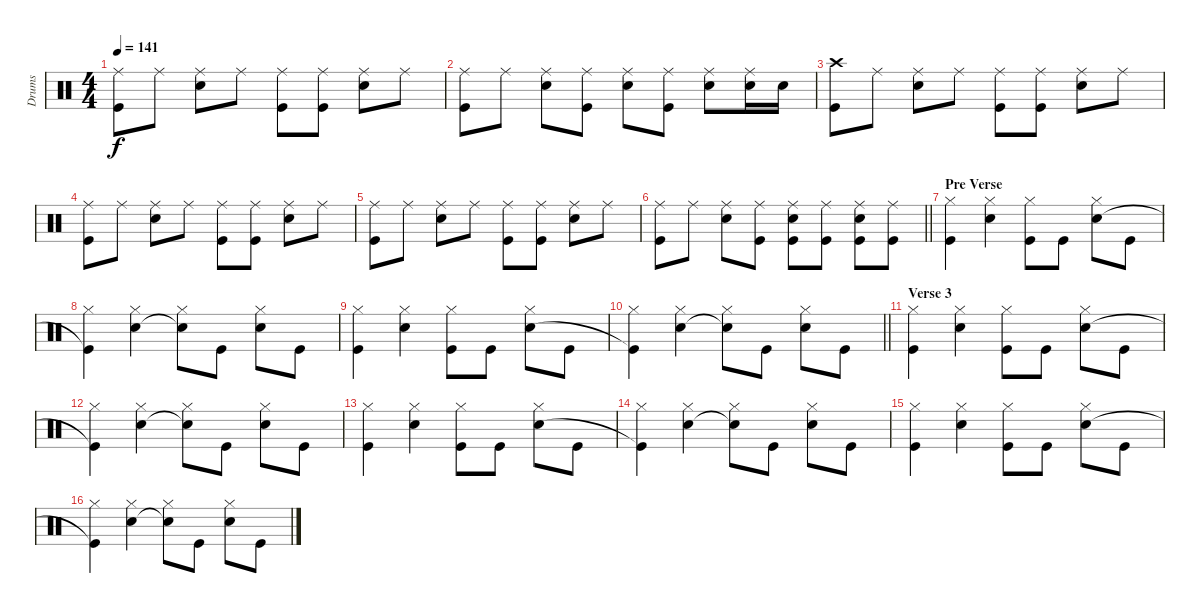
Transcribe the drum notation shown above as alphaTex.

\track ("Drums" "Drums") {instrument percussion}
\staff {score}
\articulation defaults
\ts (4 4)
\tempo 141
\clef neutral
\ks c
("Ride (middle)" "Kick (hit)").8{dy f} "Ride (middle)".8 ("Ride (middle)" "Snare (hit) 2").8 "Ride (middle)".8 ("Ride (middle)" "Kick (hit)").8 ("Ride (middle)" "Kick (hit)").8 ("Ride (middle)" "Snare (hit) 2").8 "Ride (middle)".8 |
("Ride (middle)" "Kick (hit)").8 "Ride (middle)".8 ("Ride (middle)" "Snare (hit) 2").8 ("Ride (middle)" "Kick (hit)").8 ("Ride (middle)" "Snare (hit) 2").8 ("Ride (middle)" "Kick (hit)").8 ("Ride (middle)" "Snare (hit) 2").8 ("Ride (middle)" "Snare (hit) 2").16 "Snare (hit) 2".16 |
("Crash high (hit)" "Kick (hit)").8 "Ride (middle)".8 ("Ride (middle)" "Snare (hit) 2").8 "Ride (middle)".8 ("Ride (middle)" "Kick (hit)").8 ("Ride (middle)" "Kick (hit)").8 ("Ride (middle)" "Snare (hit) 2").8 "Ride (middle)".8 |
("Ride (middle)" "Kick (hit)").8 "Ride (middle)".8 ("Ride (middle)" "Snare (hit) 2").8 "Ride (middle)".8 ("Ride (middle)" "Kick (hit)").8 ("Ride (middle)" "Kick (hit)").8 ("Ride (middle)" "Snare (hit) 2").8 "Ride (middle)".8 |
("Ride (middle)" "Kick (hit)").8 "Ride (middle)".8 ("Ride (middle)" "Snare (hit) 2").8 "Ride (middle)".8 ("Ride (middle)" "Kick (hit)").8 ("Ride (middle)" "Kick (hit)").8 ("Ride (middle)" "Snare (hit) 2").8 "Ride (middle)".8 |
\barLineRight lightlight
("Ride (middle)" "Kick (hit)").8 "Ride (middle)".8 ("Ride (middle)" "Snare (hit) 2").8 ("Ride (middle)" "Kick (hit)").8 ("Ride (middle)" "Snare (hit) 2" "Kick (hit)").8 ("Ride (middle)" "Kick (hit)").8 ("Ride (middle)" "Snare (hit) 2" "Kick (hit)").8 ("Ride (middle)" "Kick (hit)").8 |
\section ("" "Pre Verse")
("Kick (hit)" "Hi-Hat (closed)").4 ("Snare (hit) 2" "Hi-Hat (closed)").4 ("Hi-Hat (closed)" "Kick (hit)").8 "Kick (hit)".8 ("Hi-Hat (closed)" "Snare (hit) 2").8 "Kick (hit)".8 |
("Hi-Hat (closed)" "Kick (hit)"{t}).4 ("Hi-Hat (closed)" "Snare (hit) 2").4 ("Hi-Hat (closed)" "Snare (hit) 2"{t}).8 "Kick (hit)".8 ("Hi-Hat (closed)" "Snare (hit) 2").8 "Kick (hit)".8 |
("Kick (hit)" "Hi-Hat (closed)").4 ("Snare (hit) 2" "Hi-Hat (closed)").4 ("Hi-Hat (closed)" "Kick (hit)").8 "Kick (hit)".8 ("Hi-Hat (closed)" "Snare (hit) 2").8 "Kick (hit)".8 |
\barLineRight lightlight
("Hi-Hat (closed)" "Kick (hit)"{t}).4 ("Hi-Hat (closed)" "Snare (hit) 2").4 ("Hi-Hat (closed)" "Snare (hit) 2"{t}).8 "Kick (hit)".8 ("Hi-Hat (closed)" "Snare (hit) 2").8 "Kick (hit)".8 |
\section ("" "Verse 3")
("Kick (hit)" "Hi-Hat (closed)").4 ("Snare (hit) 2" "Hi-Hat (closed)").4 ("Hi-Hat (closed)" "Kick (hit)").8 "Kick (hit)".8 ("Hi-Hat (closed)" "Snare (hit) 2").8 "Kick (hit)".8 |
("Hi-Hat (closed)" "Kick (hit)"{t}).4 ("Hi-Hat (closed)" "Snare (hit) 2").4 ("Hi-Hat (closed)" "Snare (hit) 2"{t}).8 "Kick (hit)".8 ("Hi-Hat (closed)" "Snare (hit) 2").8 "Kick (hit)".8 |
("Kick (hit)" "Hi-Hat (closed)").4 ("Snare (hit) 2" "Hi-Hat (closed)").4 ("Hi-Hat (closed)" "Kick (hit)").8 "Kick (hit)".8 ("Hi-Hat (closed)" "Snare (hit) 2").8 "Kick (hit)".8 |
("Hi-Hat (closed)" "Kick (hit)"{t}).4 ("Hi-Hat (closed)" "Snare (hit) 2").4 ("Hi-Hat (closed)" "Snare (hit) 2"{t}).8 "Kick (hit)".8 ("Hi-Hat (closed)" "Snare (hit) 2").8 "Kick (hit)".8 |
("Kick (hit)" "Hi-Hat (closed)").4 ("Snare (hit) 2" "Hi-Hat (closed)").4 ("Hi-Hat (closed)" "Kick (hit)").8 "Kick (hit)".8 ("Hi-Hat (closed)" "Snare (hit) 2").8 "Kick (hit)".8 |
("Hi-Hat (closed)" "Kick (hit)"{t}).4 ("Hi-Hat (closed)" "Snare (hit) 2").4 ("Hi-Hat (closed)" "Snare (hit) 2"{t}).8 "Kick (hit)".8 ("Hi-Hat (closed)" "Snare (hit) 2").8 "Kick (hit)".8
